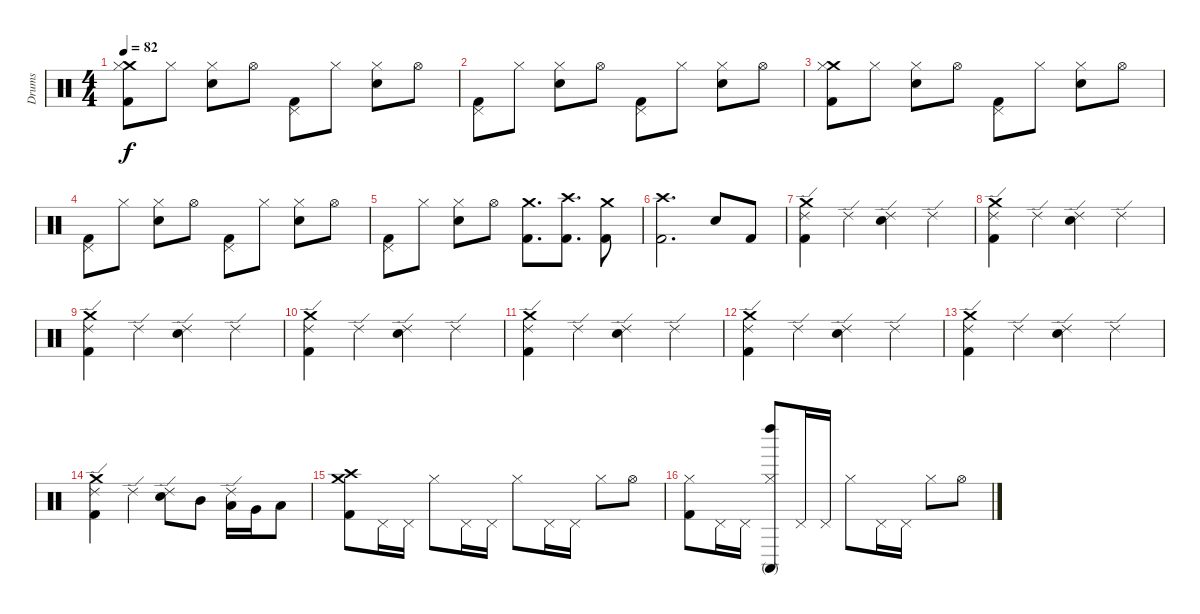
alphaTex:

\track ("Drums" "Drums") {instrument percussion}
\staff {score}
\articulation defaults
\ts (4 4)
\tempo 82
\clef neutral
\ks c
("Crash medium (hit)" "Kick (hit) 2" "Hi-Hat (closed)").8{dy f} "Hi-Hat (closed)".8 ("Snare (hit) 2" "Hi-Hat (closed)").8 "Hi-Hat (open)".8 ("Pedal Hi-Hat (hit)" "Kick (hit) 2").8 "Hi-Hat (closed)".8 ("Snare (hit) 2" "Hi-Hat (closed)").8 "Hi-Hat (open)".8 |
("Pedal Hi-Hat (hit)" "Kick (hit) 2").8 "Hi-Hat (closed)".8 ("Snare (hit) 2" "Hi-Hat (closed)").8 "Hi-Hat (open)".8 ("Pedal Hi-Hat (hit)" "Kick (hit) 2").8 "Hi-Hat (closed)".8 ("Snare (hit) 2" "Hi-Hat (closed)").8 "Hi-Hat (open)".8 |
("Crash medium (hit)" "Kick (hit) 2" "Hi-Hat (closed)").8 "Hi-Hat (closed)".8 ("Snare (hit) 2" "Hi-Hat (closed)").8 "Hi-Hat (open)".8 ("Pedal Hi-Hat (hit)" "Kick (hit) 2").8 "Hi-Hat (closed)".8 ("Snare (hit) 2" "Hi-Hat (closed)").8 "Hi-Hat (open)".8 |
("Pedal Hi-Hat (hit)" "Kick (hit) 2").8 "Hi-Hat (closed)".8 ("Snare (hit) 2" "Hi-Hat (closed)").8 "Hi-Hat (open)".8 ("Pedal Hi-Hat (hit)" "Kick (hit) 2").8 "Hi-Hat (closed)".8 ("Snare (hit) 2" "Hi-Hat (closed)").8 "Hi-Hat (open)".8 |
("Pedal Hi-Hat (hit)" "Kick (hit) 2").8 "Hi-Hat (closed)".8 ("Snare (hit) 2" "Hi-Hat (closed)").8 "Hi-Hat (open)".8 ("Crash medium (hit)" "Kick (hit) 2").8{d} ("Crash high (hit)" "Kick (hit) 2").8{d} ("Crash medium (hit)" "Kick (hit) 2").8 |
("Crash high (hit)" "Kick (hit) 2").2{d} "Snare (hit) 2".8 "Kick (hit) 2".8 |
("Crash medium (hit)" "Kick (hit) 2" "Ride (edge) 2").4 "Ride (edge) 2".4 ("Snare (hit) 2" "Ride (edge) 2").4 "Ride (edge) 2".4 |
("Crash medium (hit)" "Kick (hit) 2" "Ride (edge) 2").4 "Ride (edge) 2".4 ("Snare (hit) 2" "Ride (edge) 2").4 "Ride (edge) 2".4 |
("Crash medium (hit)" "Kick (hit) 2" "Ride (edge) 2").4 "Ride (edge) 2".4 ("Snare (hit) 2" "Ride (edge) 2").4 "Ride (edge) 2".4 |
("Crash medium (hit)" "Kick (hit) 2" "Ride (edge) 2").4 "Ride (edge) 2".4 ("Snare (hit) 2" "Ride (edge) 2").4 "Ride (edge) 2".4 |
("Crash medium (hit)" "Kick (hit) 2" "Ride (edge) 2").4 "Ride (edge) 2".4 ("Snare (hit) 2" "Ride (edge) 2").4 "Ride (edge) 2".4 |
("Crash medium (hit)" "Kick (hit) 2" "Ride (edge) 2").4 "Ride (edge) 2".4 ("Snare (hit) 2" "Ride (edge) 2").4 "Ride (edge) 2".4 |
("Crash medium (hit)" "Kick (hit) 2" "Ride (edge) 2").4 "Ride (edge) 2".4 ("Snare (hit) 2" "Ride (edge) 2").4 "Ride (edge) 2".4 |
("Crash medium (hit)" "Kick (hit) 2" "Ride (edge) 2").4 "Ride (edge) 2".4 ("Snare (hit) 2" "Ride (edge) 2").8 "Mid Tom (hit)".8 ("Low Tom (hit)" "Ride (edge) 2").16 "Very Low Tom (hit)".16 "Low Floor Tom (hit)".8 |
("Crash medium (hit)" "Crash high (hit)" "Kick (hit) 2").8 "Pedal Hi-Hat (hit)".16 "Pedal Hi-Hat (hit)".16 "Hi-Hat (closed)".8 "Pedal Hi-Hat (hit)".16 "Pedal Hi-Hat (hit)".16 "Hi-Hat (closed)".8 "Pedal Hi-Hat (hit)".16 "Pedal Hi-Hat (hit)".16 "Hi-Hat (closed)".8 "Hi-Hat (open)".8 |
("Hi-Hat (closed)" "Kick (hit) 2").8 "Pedal Hi-Hat (hit)".16 "Pedal Hi-Hat (hit)".16 ("Hi-Hat (closed)" "Left Maraca (hit)" "Conga high (mute)").8 "Pedal Hi-Hat (hit)".16 "Pedal Hi-Hat (hit)".16 "Hi-Hat (closed)".8 "Pedal Hi-Hat (hit)".16 "Pedal Hi-Hat (hit)".16 "Hi-Hat (closed)".8 "Hi-Hat (open)".8
